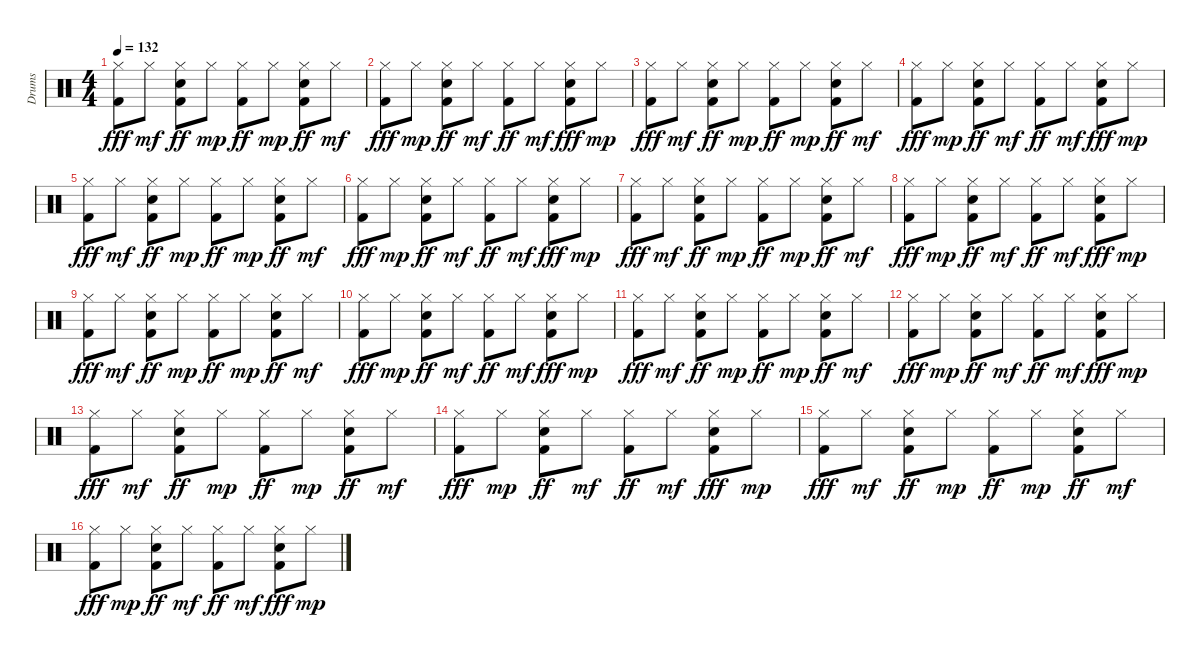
\track ("Drums" "Drums") {instrument percussion}
\staff {score}
\articulation defaults
\ts (4 4)
\tempo 132
\clef neutral
\ks c
("Kick (hit) 2" "Hi-Hat (closed)").8{dy fff} "Hi-Hat (closed)".8{dy mf} ("Hi-Hat (closed)" "Kick (hit) 2" "Snare (hit) 2").8{dy ff} "Hi-Hat (closed)".8{dy mp} ("Hi-Hat (closed)" "Kick (hit) 2").8{dy ff} "Hi-Hat (closed)".8{dy mp} ("Snare (hit) 2" "Kick (hit) 2" "Hi-Hat (closed)").8{dy ff} "Hi-Hat (closed)".8{dy mf} |
("Hi-Hat (closed)" "Kick (hit) 2").8{dy fff} "Hi-Hat (closed)".8{dy mp} ("Hi-Hat (closed)" "Snare (hit) 2" "Kick (hit) 2").8{dy ff} "Hi-Hat (closed)".8{dy mf} ("Kick (hit) 2" "Hi-Hat (closed)").8{dy ff} "Hi-Hat (closed)".8{dy mf} ("Snare (hit) 2" "Kick (hit) 2" "Hi-Hat (closed)").8{dy fff} "Hi-Hat (closed)".8{dy mp} |
("Kick (hit) 2" "Hi-Hat (closed)").8{dy fff} "Hi-Hat (closed)".8{dy mf} ("Kick (hit) 2" "Snare (hit) 2" "Hi-Hat (closed)").8{dy ff} "Hi-Hat (closed)".8{dy mp} ("Kick (hit) 2" "Hi-Hat (closed)").8{dy ff} "Hi-Hat (closed)".8{dy mp} ("Hi-Hat (closed)" "Snare (hit) 2" "Kick (hit) 2").8{dy ff} "Hi-Hat (closed)".8{dy mf} |
("Kick (hit) 2" "Hi-Hat (closed)").8{dy fff} "Hi-Hat (closed)".8{dy mp} ("Snare (hit) 2" "Hi-Hat (closed)" "Kick (hit) 2").8{dy ff} "Hi-Hat (closed)".8{dy mf} ("Hi-Hat (closed)" "Kick (hit) 2").8{dy ff} "Hi-Hat (closed)".8{dy mf} ("Hi-Hat (closed)" "Snare (hit) 2" "Kick (hit) 2").8{dy fff} "Hi-Hat (closed)".8{dy mp} |
("Hi-Hat (closed)" "Kick (hit) 2").8{dy fff} "Hi-Hat (closed)".8{dy mf} ("Hi-Hat (closed)" "Kick (hit) 2" "Snare (hit) 2").8{dy ff} "Hi-Hat (closed)".8{dy mp} ("Hi-Hat (closed)" "Kick (hit) 2").8{dy ff} "Hi-Hat (closed)".8{dy mp} ("Kick (hit) 2" "Snare (hit) 2" "Hi-Hat (closed)").8{dy ff} "Hi-Hat (closed)".8{dy mf} |
("Hi-Hat (closed)" "Kick (hit) 2").8{dy fff} "Hi-Hat (closed)".8{dy mp} ("Hi-Hat (closed)" "Kick (hit) 2" "Snare (hit) 2").8{dy ff} "Hi-Hat (closed)".8{dy mf} ("Kick (hit) 2" "Hi-Hat (closed)").8{dy ff} "Hi-Hat (closed)".8{dy mf} ("Hi-Hat (closed)" "Kick (hit) 2" "Snare (hit) 2").8{dy fff} "Hi-Hat (closed)".8{dy mp} |
("Hi-Hat (closed)" "Kick (hit) 2").8{dy fff} "Hi-Hat (closed)".8{dy mf} ("Hi-Hat (closed)" "Snare (hit) 2" "Kick (hit) 2").8{dy ff} "Hi-Hat (closed)".8{dy mp} ("Hi-Hat (closed)" "Kick (hit) 2").8{dy ff} "Hi-Hat (closed)".8{dy mp} ("Hi-Hat (closed)" "Snare (hit) 2" "Kick (hit) 2").8{dy ff} "Hi-Hat (closed)".8{dy mf} |
("Kick (hit) 2" "Hi-Hat (closed)").8{dy fff} "Hi-Hat (closed)".8{dy mp} ("Snare (hit) 2" "Hi-Hat (closed)" "Kick (hit) 2").8{dy ff} "Hi-Hat (closed)".8{dy mf} ("Kick (hit) 2" "Hi-Hat (closed)").8{dy ff} "Hi-Hat (closed)".8{dy mf} ("Kick (hit) 2" "Snare (hit) 2" "Hi-Hat (closed)").8{dy fff} "Hi-Hat (closed)".8{dy mp} |
("Hi-Hat (closed)" "Kick (hit) 2").8{dy fff} "Hi-Hat (closed)".8{dy mf} ("Snare (hit) 2" "Kick (hit) 2" "Hi-Hat (closed)").8{dy ff} "Hi-Hat (closed)".8{dy mp} ("Kick (hit) 2" "Hi-Hat (closed)").8{dy ff} "Hi-Hat (closed)".8{dy mp} ("Kick (hit) 2" "Snare (hit) 2" "Hi-Hat (closed)").8{dy ff} "Hi-Hat (closed)".8{dy mf} |
("Hi-Hat (closed)" "Kick (hit) 2").8{dy fff} "Hi-Hat (closed)".8{dy mp} ("Kick (hit) 2" "Snare (hit) 2" "Hi-Hat (closed)").8{dy ff} "Hi-Hat (closed)".8{dy mf} ("Hi-Hat (closed)" "Kick (hit) 2").8{dy ff} "Hi-Hat (closed)".8{dy mf} ("Hi-Hat (closed)" "Kick (hit) 2" "Snare (hit) 2").8{dy fff} "Hi-Hat (closed)".8{dy mp} |
("Hi-Hat (closed)" "Kick (hit) 2").8{dy fff} "Hi-Hat (closed)".8{dy mf} ("Kick (hit) 2" "Hi-Hat (closed)" "Snare (hit) 2").8{dy ff} "Hi-Hat (closed)".8{dy mp} ("Hi-Hat (closed)" "Kick (hit) 2").8{dy ff} "Hi-Hat (closed)".8{dy mp} ("Hi-Hat (closed)" "Snare (hit) 2" "Kick (hit) 2").8{dy ff} "Hi-Hat (closed)".8{dy mf} |
("Kick (hit) 2" "Hi-Hat (closed)").8{dy fff} "Hi-Hat (closed)".8{dy mp} ("Hi-Hat (closed)" "Snare (hit) 2" "Kick (hit) 2").8{dy ff} "Hi-Hat (closed)".8{dy mf} ("Kick (hit) 2" "Hi-Hat (closed)").8{dy ff} "Hi-Hat (closed)".8{dy mf} ("Kick (hit) 2" "Snare (hit) 2" "Hi-Hat (closed)").8{dy fff} "Hi-Hat (closed)".8{dy mp} |
("Kick (hit) 2" "Hi-Hat (closed)").8{dy fff} "Hi-Hat (closed)".8{dy mf} ("Kick (hit) 2" "Hi-Hat (closed)" "Snare (hit) 2").8{dy ff} "Hi-Hat (closed)".8{dy mp} ("Hi-Hat (closed)" "Kick (hit) 2").8{dy ff} "Hi-Hat (closed)".8{dy mp} ("Hi-Hat (closed)" "Snare (hit) 2" "Kick (hit) 2").8{dy ff} "Hi-Hat (closed)".8{dy mf} |
("Kick (hit) 2" "Hi-Hat (closed)").8{dy fff} "Hi-Hat (closed)".8{dy mp} ("Hi-Hat (closed)" "Snare (hit) 2" "Kick (hit) 2").8{dy ff} "Hi-Hat (closed)".8{dy mf} ("Kick (hit) 2" "Hi-Hat (closed)").8{dy ff} "Hi-Hat (closed)".8{dy mf} ("Kick (hit) 2" "Snare (hit) 2" "Hi-Hat (closed)").8{dy fff} "Hi-Hat (closed)".8{dy mp} |
("Kick (hit) 2" "Hi-Hat (closed)").8{dy fff} "Hi-Hat (closed)".8{dy mf} ("Kick (hit) 2" "Snare (hit) 2" "Hi-Hat (closed)").8{dy ff} "Hi-Hat (closed)".8{dy mp} ("Hi-Hat (closed)" "Kick (hit) 2").8{dy ff} "Hi-Hat (closed)".8{dy mp} ("Hi-Hat (closed)" "Kick (hit) 2" "Snare (hit) 2").8{dy ff} "Hi-Hat (closed)".8{dy mf} |
("Kick (hit) 2" "Hi-Hat (closed)").8{dy fff} "Hi-Hat (closed)".8{dy mp} ("Hi-Hat (closed)" "Kick (hit) 2" "Snare (hit) 2").8{dy ff} "Hi-Hat (closed)".8{dy mf} ("Hi-Hat (closed)" "Kick (hit) 2").8{dy ff} "Hi-Hat (closed)".8{dy mf} ("Hi-Hat (closed)" "Snare (hit) 2" "Kick (hit) 2").8{dy fff} "Hi-Hat (closed)".8{dy mp}
